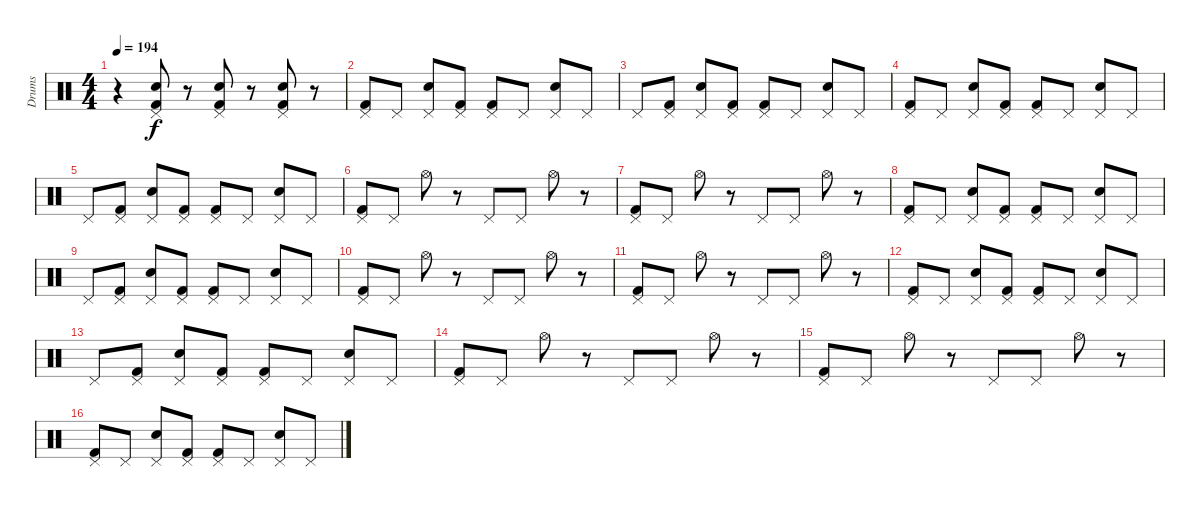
\track ("Drums" "Drums") {instrument percussion}
\staff {score}
\articulation defaults
\ts (4 4)
\tempo 194
\clef neutral
\ks c
r.4{dy f} ("Electric Snare (hit)" "Pedal Hi-Hat (hit)" "Kick (hit) 2").8 r.8 ("Electric Snare (hit)" "Pedal Hi-Hat (hit)" "Kick (hit) 2").8 r.8 ("Kick (hit) 2" "Pedal Hi-Hat (hit)" "Electric Snare (hit)").8 r.8 |
("Pedal Hi-Hat (hit)" "Kick (hit) 2").8 "Pedal Hi-Hat (hit)".8 ("Pedal Hi-Hat (hit)" "Electric Snare (hit)").8 ("Pedal Hi-Hat (hit)" "Kick (hit) 2").8 ("Pedal Hi-Hat (hit)" "Kick (hit) 2").8 "Pedal Hi-Hat (hit)".8 ("Pedal Hi-Hat (hit)" "Electric Snare (hit)").8 "Pedal Hi-Hat (hit)".8 |
"Pedal Hi-Hat (hit)".8 ("Pedal Hi-Hat (hit)" "Kick (hit) 2").8 ("Electric Snare (hit)" "Pedal Hi-Hat (hit)").8 ("Pedal Hi-Hat (hit)" "Kick (hit) 2").8 ("Kick (hit) 2" "Pedal Hi-Hat (hit)").8 "Pedal Hi-Hat (hit)".8 ("Pedal Hi-Hat (hit)" "Electric Snare (hit)").8 "Pedal Hi-Hat (hit)".8 |
("Kick (hit) 2" "Pedal Hi-Hat (hit)").8 "Pedal Hi-Hat (hit)".8 ("Pedal Hi-Hat (hit)" "Electric Snare (hit)").8 ("Kick (hit) 2" "Pedal Hi-Hat (hit)").8 ("Kick (hit) 2" "Pedal Hi-Hat (hit)").8 "Pedal Hi-Hat (hit)".8 ("Electric Snare (hit)" "Pedal Hi-Hat (hit)").8 "Pedal Hi-Hat (hit)".8 |
"Pedal Hi-Hat (hit)".8 ("Kick (hit) 2" "Pedal Hi-Hat (hit)").8 ("Electric Snare (hit)" "Pedal Hi-Hat (hit)").8 ("Kick (hit) 2" "Pedal Hi-Hat (hit)").8 ("Kick (hit) 2" "Pedal Hi-Hat (hit)").8 "Pedal Hi-Hat (hit)".8 ("Electric Snare (hit)" "Pedal Hi-Hat (hit)").8 "Pedal Hi-Hat (hit)".8 |
("Pedal Hi-Hat (hit)" "Kick (hit) 2").8 "Pedal Hi-Hat (hit)".8 "Hi-Hat (open)".8 r.8 "Pedal Hi-Hat (hit)".8 "Pedal Hi-Hat (hit)".8 "Hi-Hat (open)".8 r.8 |
("Kick (hit) 2" "Pedal Hi-Hat (hit)").8 "Pedal Hi-Hat (hit)".8 "Hi-Hat (open)".8 r.8 "Pedal Hi-Hat (hit)".8 "Pedal Hi-Hat (hit)".8 "Hi-Hat (open)".8 r.8 |
("Kick (hit) 2" "Pedal Hi-Hat (hit)").8 "Pedal Hi-Hat (hit)".8 ("Pedal Hi-Hat (hit)" "Electric Snare (hit)").8 ("Pedal Hi-Hat (hit)" "Kick (hit) 2").8 ("Pedal Hi-Hat (hit)" "Kick (hit) 2").8 "Pedal Hi-Hat (hit)".8 ("Pedal Hi-Hat (hit)" "Electric Snare (hit)").8 "Pedal Hi-Hat (hit)".8 |
"Pedal Hi-Hat (hit)".8 ("Pedal Hi-Hat (hit)" "Kick (hit) 2").8 ("Pedal Hi-Hat (hit)" "Electric Snare (hit)").8 ("Pedal Hi-Hat (hit)" "Kick (hit) 2").8 ("Kick (hit) 2" "Pedal Hi-Hat (hit)").8 "Pedal Hi-Hat (hit)".8 ("Electric Snare (hit)" "Pedal Hi-Hat (hit)").8 "Pedal Hi-Hat (hit)".8 |
("Kick (hit) 2" "Pedal Hi-Hat (hit)").8 "Pedal Hi-Hat (hit)".8 "Hi-Hat (open)".8 r.8 "Pedal Hi-Hat (hit)".8 "Pedal Hi-Hat (hit)".8 "Hi-Hat (open)".8 r.8 |
("Kick (hit) 2" "Pedal Hi-Hat (hit)").8 "Pedal Hi-Hat (hit)".8 "Hi-Hat (open)".8 r.8 "Pedal Hi-Hat (hit)".8 "Pedal Hi-Hat (hit)".8 "Hi-Hat (open)".8 r.8 |
("Kick (hit) 2" "Pedal Hi-Hat (hit)").8 "Pedal Hi-Hat (hit)".8 ("Pedal Hi-Hat (hit)" "Electric Snare (hit)").8 ("Kick (hit) 2" "Pedal Hi-Hat (hit)").8 ("Pedal Hi-Hat (hit)" "Kick (hit) 2").8 "Pedal Hi-Hat (hit)".8 ("Electric Snare (hit)" "Pedal Hi-Hat (hit)").8 "Pedal Hi-Hat (hit)".8 |
"Pedal Hi-Hat (hit)".8 ("Kick (hit) 2" "Pedal Hi-Hat (hit)").8 ("Pedal Hi-Hat (hit)" "Electric Snare (hit)").8 ("Kick (hit) 2" "Pedal Hi-Hat (hit)").8 ("Kick (hit) 2" "Pedal Hi-Hat (hit)").8 "Pedal Hi-Hat (hit)".8 ("Pedal Hi-Hat (hit)" "Electric Snare (hit)").8 "Pedal Hi-Hat (hit)".8 |
("Kick (hit) 2" "Pedal Hi-Hat (hit)").8 "Pedal Hi-Hat (hit)".8 "Hi-Hat (open)".8 r.8 "Pedal Hi-Hat (hit)".8 "Pedal Hi-Hat (hit)".8 "Hi-Hat (open)".8 r.8 |
("Pedal Hi-Hat (hit)" "Kick (hit) 2").8 "Pedal Hi-Hat (hit)".8 "Hi-Hat (open)".8 r.8 "Pedal Hi-Hat (hit)".8 "Pedal Hi-Hat (hit)".8 "Hi-Hat (open)".8 r.8 |
("Pedal Hi-Hat (hit)" "Kick (hit) 2").8 "Pedal Hi-Hat (hit)".8 ("Pedal Hi-Hat (hit)" "Electric Snare (hit)").8 ("Kick (hit) 2" "Pedal Hi-Hat (hit)").8 ("Pedal Hi-Hat (hit)" "Kick (hit) 2").8 "Pedal Hi-Hat (hit)".8 ("Pedal Hi-Hat (hit)" "Electric Snare (hit)").8 "Pedal Hi-Hat (hit)".8
